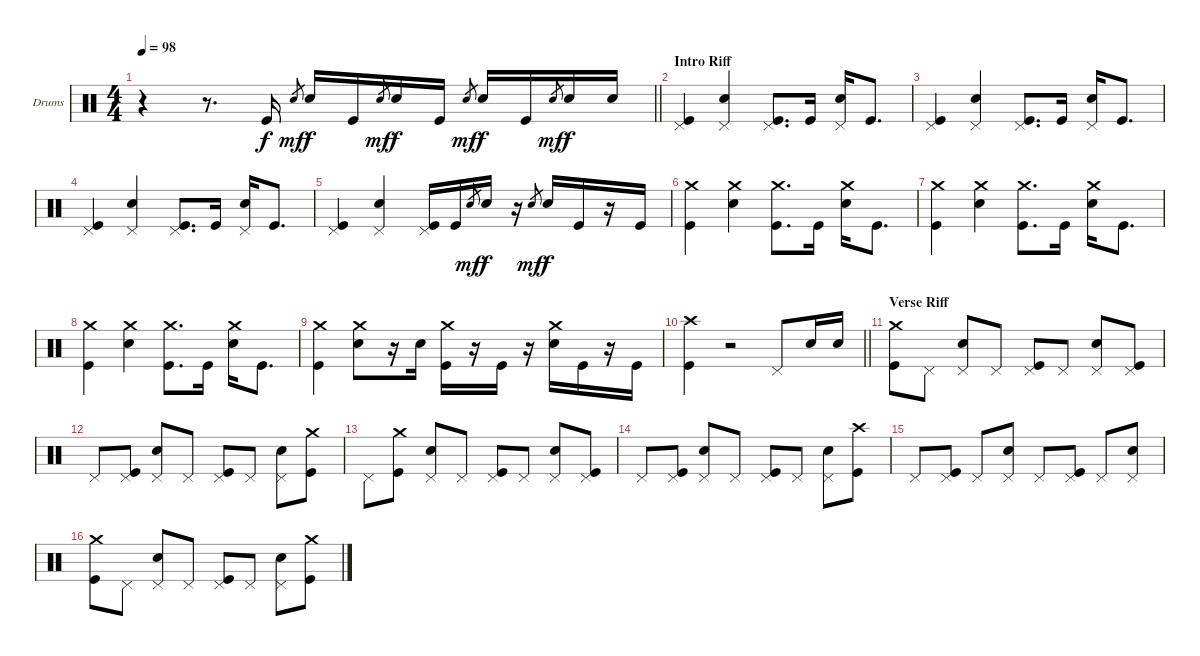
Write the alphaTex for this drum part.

\bracketExtendMode groupsimilarinstruments
\firstSystemTrackNameOrientation horizontal
\otherSystemsTrackNameOrientation horizontal
\track ("Drumkit" "Drums") {instrument percussion}
\staff {score}
\articulation defaults
\ts (4 4)
\beaming (8 2 2 2 2)
\tempo 98
\clef neutral
\barLineRight lightlight
\ks c
r.4{dy f} r.8{d} "Kick (hit)".16 "Snare (hit) 2".8{gr dy mf} "Snare (hit) 2".16{dy f} "Kick (hit)".16 "Snare (hit) 2".8{gr dy mf} "Snare (hit) 2".16{dy f} "Kick (hit)".16 "Snare (hit) 2".8{gr dy mf} "Snare (hit) 2".16{dy f} "Kick (hit)".16 "Snare (hit) 2".8{gr dy mf} "Snare (hit) 2".16{dy f} "Snare (hit) 2".16 |
\section ("" "Intro Riff")
("Pedal Hi-Hat (hit)" "Kick (hit)").4 ("Pedal Hi-Hat (hit)" "Snare (hit) 2").4 ("Pedal Hi-Hat (hit)" "Kick (hit)").8{d} "Kick (hit)".16 ("Pedal Hi-Hat (hit)" "Snare (hit) 2").16 "Kick (hit)".8{d} |
("Pedal Hi-Hat (hit)" "Kick (hit)").4 ("Pedal Hi-Hat (hit)" "Snare (hit) 2").4 ("Pedal Hi-Hat (hit)" "Kick (hit)").8{d} "Kick (hit)".16 ("Pedal Hi-Hat (hit)" "Snare (hit) 2").16 "Kick (hit)".8{d} |
("Pedal Hi-Hat (hit)" "Kick (hit)").4 ("Pedal Hi-Hat (hit)" "Snare (hit) 2").4 ("Pedal Hi-Hat (hit)" "Kick (hit)").8{d} "Kick (hit)".16 ("Pedal Hi-Hat (hit)" "Snare (hit) 2").16 "Kick (hit)".8{d} |
("Pedal Hi-Hat (hit)" "Kick (hit)").4 ("Pedal Hi-Hat (hit)" "Snare (hit) 2").4 ("Pedal Hi-Hat (hit)" "Kick (hit)").16 "Kick (hit)".16 "Snare (hit) 2".8{gr dy mf} "Snare (hit) 2".16{dy f} r.16 "Snare (hit) 2".8{gr dy mf} "Snare (hit) 2".16{dy f} "Kick (hit)".16 r.16 "Kick (hit)".16 |
("Crash medium (hit)" "Kick (hit)").4 ("Crash medium (hit)" "Snare (hit) 2").4 ("Crash medium (hit)" "Kick (hit)").8{d} "Kick (hit)".16 ("Crash medium (hit)" "Snare (hit) 2").16 "Kick (hit)".8{d} |
("Crash medium (hit)" "Kick (hit)").4 ("Crash medium (hit)" "Snare (hit) 2").4 ("Crash medium (hit)" "Kick (hit)").8{d} "Kick (hit)".16 ("Crash medium (hit)" "Snare (hit) 2").16 "Kick (hit)".8{d} |
("Crash medium (hit)" "Kick (hit)").4 ("Crash medium (hit)" "Snare (hit) 2").4 ("Crash medium (hit)" "Kick (hit)").8{d} "Kick (hit)".16 ("Crash medium (hit)" "Snare (hit) 2").16 "Kick (hit)".8{d} |
("Crash medium (hit)" "Kick (hit)").4 ("Crash medium (hit)" "Snare (hit) 2").8 r.16 "Snare (hit) 2".16 ("Crash medium (hit)" "Kick (hit)").16 r.16 "Kick (hit)".16 r.16 ("Crash medium (hit)" "Snare (hit) 2").16 "Kick (hit)".16 r.16 "Kick (hit)".16 |
\barLineRight lightlight
("Crash high (hit)" "Kick (hit)").4 r.2 "Pedal Hi-Hat (hit)".8 "Snare (hit) 2".16 "Snare (hit) 2".16 |
\section ("" "Verse Riff")
("Crash medium (hit)" "Kick (hit)").8 "Pedal Hi-Hat (hit)".8 ("Pedal Hi-Hat (hit)" "Snare (hit) 2").8 "Pedal Hi-Hat (hit)".8 ("Pedal Hi-Hat (hit)" "Kick (hit)").8 "Pedal Hi-Hat (hit)".8 ("Pedal Hi-Hat (hit)" "Snare (hit) 2").8 ("Pedal Hi-Hat (hit)" "Kick (hit)").8 |
"Pedal Hi-Hat (hit)".8 ("Pedal Hi-Hat (hit)" "Kick (hit)").8 ("Pedal Hi-Hat (hit)" "Snare (hit) 2").8 "Pedal Hi-Hat (hit)".8 ("Pedal Hi-Hat (hit)" "Kick (hit)").8 "Pedal Hi-Hat (hit)".8 ("Pedal Hi-Hat (hit)" "Snare (hit) 2").8 ("Crash medium (hit)" "Kick (hit)").8 |
"Pedal Hi-Hat (hit)".8 ("Crash medium (hit)" "Kick (hit)").8 ("Pedal Hi-Hat (hit)" "Snare (hit) 2").8 "Pedal Hi-Hat (hit)".8 ("Pedal Hi-Hat (hit)" "Kick (hit)").8 "Pedal Hi-Hat (hit)".8 ("Pedal Hi-Hat (hit)" "Snare (hit) 2").8 ("Pedal Hi-Hat (hit)" "Kick (hit)").8 |
"Pedal Hi-Hat (hit)".8 ("Pedal Hi-Hat (hit)" "Kick (hit)").8 ("Pedal Hi-Hat (hit)" "Snare (hit) 2").8 "Pedal Hi-Hat (hit)".8 ("Pedal Hi-Hat (hit)" "Kick (hit)").8 "Pedal Hi-Hat (hit)".8 ("Pedal Hi-Hat (hit)" "Snare (hit) 2").8 ("Crash high (hit)" "Kick (hit)").8 |
"Pedal Hi-Hat (hit)".8 ("Pedal Hi-Hat (hit)" "Kick (hit)").8 "Pedal Hi-Hat (hit)".8 ("Pedal Hi-Hat (hit)" "Snare (hit) 2").8 "Pedal Hi-Hat (hit)".8 ("Pedal Hi-Hat (hit)" "Kick (hit)").8 "Pedal Hi-Hat (hit)".8 ("Pedal Hi-Hat (hit)" "Snare (hit) 2").8 |
("Crash medium (hit)" "Kick (hit)").8 "Pedal Hi-Hat (hit)".8 ("Pedal Hi-Hat (hit)" "Snare (hit) 2").8 "Pedal Hi-Hat (hit)".8 ("Pedal Hi-Hat (hit)" "Kick (hit)").8 "Pedal Hi-Hat (hit)".8 ("Pedal Hi-Hat (hit)" "Snare (hit) 2").8 ("Crash medium (hit)" "Kick (hit)").8
